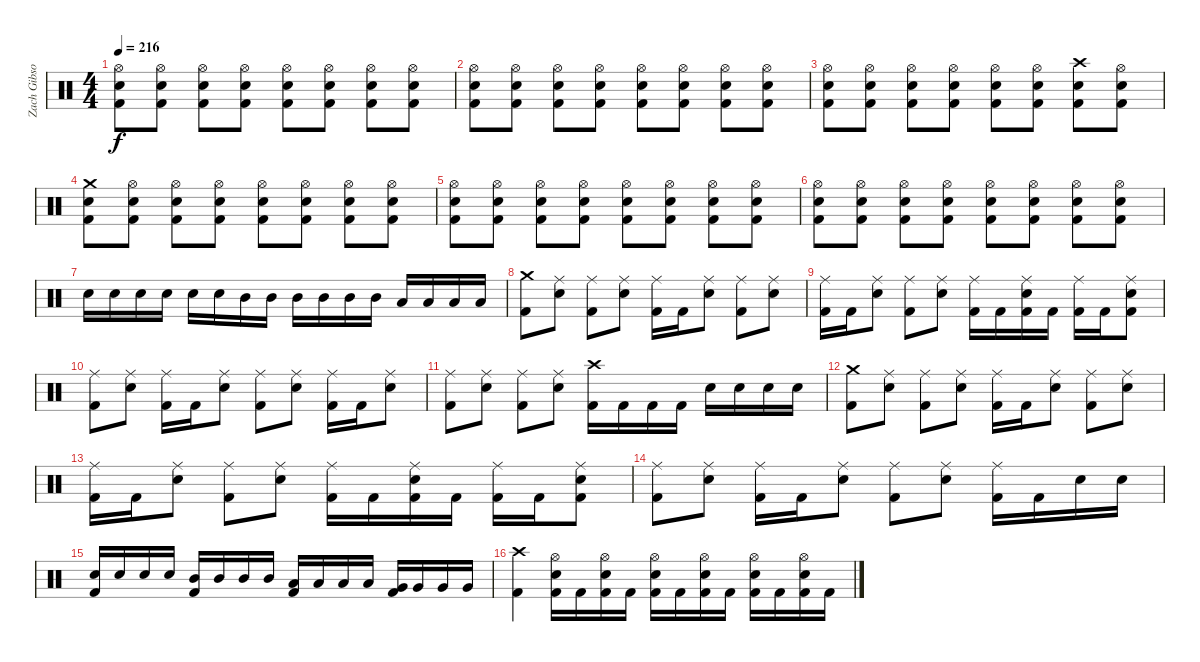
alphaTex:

\track ("Zach Gibson (Ex-Drums)" "Zach Gibso") {instrument percussion}
\staff {score}
\articulation defaults
\ts (4 4)
\tempo 216
\clef neutral
\ks c
("Hi-Hat (open)" "Snare (hit) 2" "Kick (hit) 2").8{dy f} ("Hi-Hat (open)" "Snare (hit) 2" "Kick (hit) 2").8 ("Hi-Hat (open)" "Snare (hit) 2" "Kick (hit) 2").8 ("Hi-Hat (open)" "Snare (hit) 2" "Kick (hit) 2").8 ("Hi-Hat (open)" "Snare (hit) 2" "Kick (hit) 2").8 ("Hi-Hat (open)" "Snare (hit) 2" "Kick (hit) 2").8 ("Hi-Hat (open)" "Snare (hit) 2" "Kick (hit) 2").8 ("Hi-Hat (open)" "Snare (hit) 2" "Kick (hit) 2").8 |
("Hi-Hat (open)" "Snare (hit) 2" "Kick (hit) 2").8 ("Hi-Hat (open)" "Snare (hit) 2" "Kick (hit) 2").8 ("Hi-Hat (open)" "Snare (hit) 2" "Kick (hit) 2").8 ("Hi-Hat (open)" "Snare (hit) 2" "Kick (hit) 2").8 ("Hi-Hat (open)" "Snare (hit) 2" "Kick (hit) 2").8 ("Hi-Hat (open)" "Snare (hit) 2" "Kick (hit) 2").8 ("Hi-Hat (open)" "Snare (hit) 2" "Kick (hit) 2").8 ("Hi-Hat (open)" "Snare (hit) 2" "Kick (hit) 2").8 |
("Hi-Hat (open)" "Snare (hit) 2" "Kick (hit) 2").8 ("Hi-Hat (open)" "Snare (hit) 2" "Kick (hit) 2").8 ("Hi-Hat (open)" "Snare (hit) 2" "Kick (hit) 2").8 ("Hi-Hat (open)" "Snare (hit) 2" "Kick (hit) 2").8 ("Hi-Hat (open)" "Snare (hit) 2" "Kick (hit) 2").8 ("Hi-Hat (open)" "Snare (hit) 2" "Kick (hit) 2").8 ("Crash high (hit)" "Snare (hit) 2" "Kick (hit) 2").8 ("Hi-Hat (open)" "Snare (hit) 2" "Kick (hit) 2").8 |
("Crash medium (hit)" "Snare (hit) 2" "Kick (hit) 2").8 ("Hi-Hat (open)" "Snare (hit) 2" "Kick (hit) 2").8 ("Hi-Hat (open)" "Snare (hit) 2" "Kick (hit) 2").8 ("Hi-Hat (open)" "Snare (hit) 2" "Kick (hit) 2").8 ("Hi-Hat (open)" "Snare (hit) 2" "Kick (hit) 2").8 ("Hi-Hat (open)" "Snare (hit) 2" "Kick (hit) 2").8 ("Hi-Hat (open)" "Snare (hit) 2" "Kick (hit) 2").8 ("Hi-Hat (open)" "Snare (hit) 2" "Kick (hit) 2").8 |
("Hi-Hat (open)" "Snare (hit) 2" "Kick (hit) 2").8 ("Hi-Hat (open)" "Snare (hit) 2" "Kick (hit) 2").8 ("Hi-Hat (open)" "Snare (hit) 2" "Kick (hit) 2").8 ("Hi-Hat (open)" "Snare (hit) 2" "Kick (hit) 2").8 ("Hi-Hat (open)" "Snare (hit) 2" "Kick (hit) 2").8 ("Hi-Hat (open)" "Snare (hit) 2" "Kick (hit) 2").8 ("Hi-Hat (open)" "Snare (hit) 2" "Kick (hit) 2").8 ("Hi-Hat (open)" "Snare (hit) 2" "Kick (hit) 2").8 |
("Hi-Hat (open)" "Snare (hit) 2" "Kick (hit) 2").8 ("Hi-Hat (open)" "Snare (hit) 2" "Kick (hit) 2").8 ("Hi-Hat (open)" "Snare (hit) 2" "Kick (hit) 2").8 ("Hi-Hat (open)" "Snare (hit) 2" "Kick (hit) 2").8 ("Hi-Hat (open)" "Snare (hit) 2" "Kick (hit) 2").8 ("Hi-Hat (open)" "Snare (hit) 2" "Kick (hit) 2").8 ("Hi-Hat (open)" "Snare (hit) 2" "Kick (hit) 2").8 ("Hi-Hat (open)" "Snare (hit) 2" "Kick (hit) 2").8 |
"Snare (hit) 2".16 "Snare (hit) 2".16 "Snare (hit) 2".16 "Snare (hit) 2".16 "Snare (hit) 2".16 "Snare (hit) 2".16 "Mid Tom (hit)".16 "Mid Tom (hit)".16 "Mid Tom (hit)".16 "Mid Tom (hit)".16 "Mid Tom (hit)".16 "Mid Tom (hit)".16 "Low Tom (hit)".16 "Low Tom (hit)".16 "Low Floor Tom (hit)".16 "Low Floor Tom (hit)".16 |
("Crash medium (hit)" "Kick (hit) 2").8 ("Ride (middle)" "Snare (hit) 2").8 ("Ride (middle)" "Kick (hit) 2").8 ("Ride (middle)" "Snare (hit) 2").8 ("Ride (middle)" "Kick (hit) 2").16 "Kick (hit) 2".16 ("Ride (middle)" "Snare (hit) 2").8 ("Ride (middle)" "Kick (hit) 2").8 ("Ride (middle)" "Snare (hit) 2").8 |
("Ride (middle)" "Kick (hit) 2").16 "Kick (hit) 2".16 ("Ride (middle)" "Snare (hit) 2").8 ("Ride (middle)" "Kick (hit) 2").8 ("Ride (middle)" "Snare (hit) 2").8 ("Ride (middle)" "Kick (hit) 2").16 "Kick (hit) 2".16 ("Ride (middle)" "Snare (hit) 2" "Kick (hit) 2").16 "Kick (hit) 2".16 ("Ride (middle)" "Kick (hit) 2").16 "Kick (hit) 2".16 ("Ride (middle)" "Snare (hit) 2" "Kick (hit) 2").8 |
("Ride (middle)" "Kick (hit) 2").8 ("Ride (middle)" "Snare (hit) 2").8 ("Ride (middle)" "Kick (hit) 2").16 "Kick (hit) 2".16 ("Ride (middle)" "Snare (hit) 2").8 ("Ride (middle)" "Kick (hit) 2").8 ("Ride (middle)" "Snare (hit) 2").8 ("Ride (middle)" "Kick (hit) 2").16 "Kick (hit) 2".16 ("Ride (middle)" "Snare (hit) 2").8 |
("Ride (middle)" "Kick (hit) 2").8 ("Ride (middle)" "Snare (hit) 2").8 ("Ride (middle)" "Kick (hit) 2").8 ("Ride (middle)" "Snare (hit) 2").8 ("Crash high (hit)" "Kick (hit) 2").16 "Kick (hit) 2".16 "Kick (hit) 2".16 "Kick (hit) 2".16 "Snare (hit) 2".16 "Snare (hit) 2".16 "Snare (hit) 2".16 "Snare (hit) 2".16 |
("Crash medium (hit)" "Kick (hit) 2").8 ("Ride (middle)" "Snare (hit) 2").8 ("Ride (middle)" "Kick (hit) 2").8 ("Ride (middle)" "Snare (hit) 2").8 ("Ride (middle)" "Kick (hit) 2").16 "Kick (hit) 2".16 ("Ride (middle)" "Snare (hit) 2").8 ("Ride (middle)" "Kick (hit) 2").8 ("Ride (middle)" "Snare (hit) 2").8 |
("Ride (middle)" "Kick (hit) 2").16 "Kick (hit) 2".16 ("Ride (middle)" "Snare (hit) 2").8 ("Ride (middle)" "Kick (hit) 2").8 ("Ride (middle)" "Snare (hit) 2").8 ("Ride (middle)" "Kick (hit) 2").16 "Kick (hit) 2".16 ("Ride (middle)" "Snare (hit) 2" "Kick (hit) 2").16 "Kick (hit) 2".16 ("Ride (middle)" "Kick (hit) 2").16 "Kick (hit) 2".16 ("Ride (middle)" "Snare (hit) 2" "Kick (hit) 2").8 |
("Ride (middle)" "Kick (hit) 2").8 ("Ride (middle)" "Snare (hit) 2").8 ("Ride (middle)" "Kick (hit) 2").16 "Kick (hit) 2".16 ("Ride (middle)" "Snare (hit) 2").8 ("Ride (middle)" "Kick (hit) 2").8 ("Ride (middle)" "Snare (hit) 2").8 ("Ride (middle)" "Kick (hit) 2").16 "Kick (hit) 2".16 "Snare (hit) 2".16 "Snare (hit) 2".16 |
("Snare (hit) 2" "Kick (hit) 2").16 "Snare (hit) 2".16 "Snare (hit) 2".16 "Snare (hit) 2".16 ("Mid Tom (hit)" "Kick (hit) 2").16 "Mid Tom (hit)".16 "Mid Tom (hit)".16 "Mid Tom (hit)".16 ("Low Tom (hit)" "Kick (hit) 2").16 "Low Tom (hit)".16 "Low Tom (hit)".16 "Low Tom (hit)".16 ("Very Low Tom (hit)" "Kick (hit) 2").16 "Very Low Tom (hit)".16 "Very Low Tom (hit)".16 "Very Low Tom (hit)".16 |
("Crash high (hit)" "Kick (hit) 2").4 ("Hi-Hat (open)" "Snare (hit) 2" "Kick (hit) 2").16 "Kick (hit) 2".16 ("Hi-Hat (open)" "Snare (hit) 2" "Kick (hit) 2").16 "Kick (hit) 2".16 ("Hi-Hat (open)" "Snare (hit) 2" "Kick (hit) 2").16 "Kick (hit) 2".16 ("Hi-Hat (open)" "Snare (hit) 2" "Kick (hit) 2").16 "Kick (hit) 2".16 ("Hi-Hat (open)" "Snare (hit) 2" "Kick (hit) 2").16 "Kick (hit) 2".16 ("Hi-Hat (open)" "Snare (hit) 2" "Kick (hit) 2").16 "Kick (hit) 2".16
